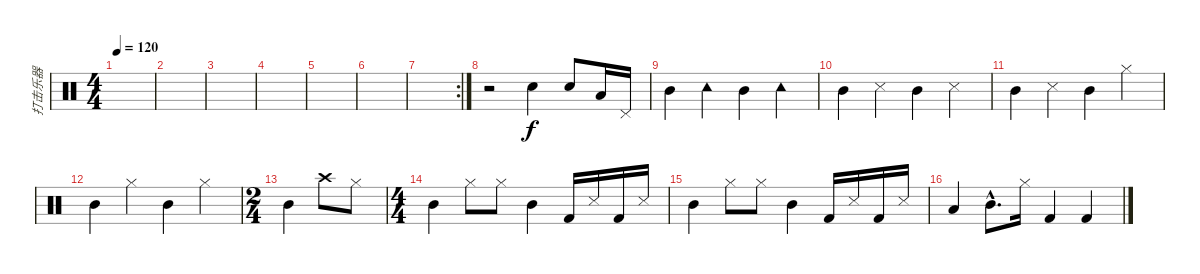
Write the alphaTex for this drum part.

\track ("打击乐器" "打击乐器") {instrument percussion}
\staff {score}
\articulation defaults
\ts (4 4)
\tempo 120
\clef neutral
\ks c
|
|
|
|
|
|
\rc 2
|
r.2 "Snare (hit) 2"{nh}.4 "Snare (hit) 2".8 "Low Tom (hit)".16 "Pedal Hi-Hat (hit)".16 |
"Mid Tom (hit)".4 "Tambourine (hit)".4 "Mid Tom (hit)".4 "Tambourine (hit)".4 |
"Mid Tom (hit)".4 "Snare (side stick) 3".4 "Mid Tom (hit)".4 "Snare (side stick) 3".4 |
"Mid Tom (hit)".4 "Snare (side stick) 3".4 "Mid Tom (hit)".4 "Hi-Hat (closed)".4 |
"Mid Tom (hit)".4 "Hi-Hat (closed)".4 "Mid Tom (hit)".4 "Hi-Hat (closed)".4 |
\ts (2 4)
"Mid Tom (hit)".4 "Crash high (hit)".8 "Hi-Hat (closed)".8 |
\ts (4 4)
"Mid Tom (hit)".4 "Hi-Hat (closed)".8 "Hi-Hat (closed)".8 "Mid Tom (hit)".4 "Kick (hit) 2".16 "Snare (side stick) 3".16 "Kick (hit) 2".16 "Snare (side stick) 3".16 |
"Mid Tom (hit)".4 "Hi-Hat (closed)".8 "Hi-Hat (closed)".8 "Mid Tom (hit)".4 "Kick (hit) 2".16 "Snare (side stick) 3".16 "Kick (hit) 2".16 "Snare (side stick) 3".16 |
"Low Tom (hit)".4 "Mid Tom (hit)"{hac}.8{d} "Hi-Hat (closed)".16 "Kick (hit) 2".4 "Kick (hit) 2".4
